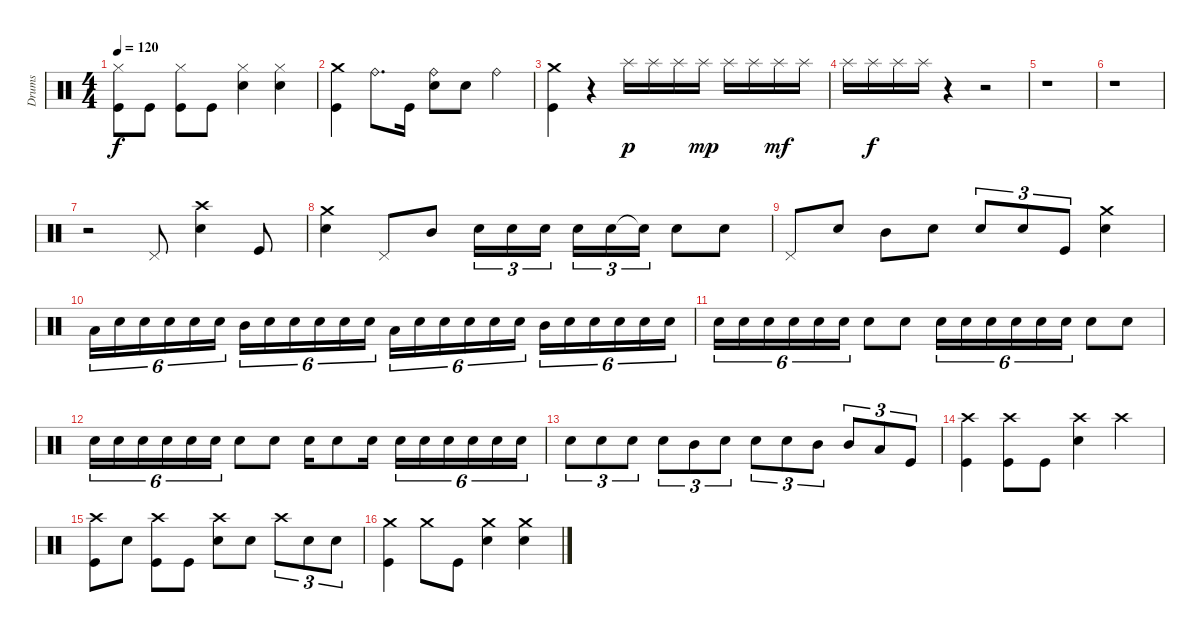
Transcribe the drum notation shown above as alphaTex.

\track ("Drums" "Drums") {instrument percussion}
\staff {score}
\articulation defaults
\ts (4 4)
\tempo 120
\clef neutral
\ks c
("Kick (hit)" "Hi-Hat (closed)").8{dy f} "Kick (hit)".8 ("Kick (hit)" "Hi-Hat (closed)").8 "Kick (hit)".8 ("Snare (hit) 2" "Hi-Hat (closed)").4 ("Snare (hit) 2" "Hi-Hat (closed)").4 |
("Kick (hit)" "Crash medium (hit)").4 "Ride (bell)".8{d} "Kick (hit)".16 ("Snare (hit) 2" "Ride (bell)").8 "Snare (hit) 2".8 "Ride (bell)".4 |
("Kick (hit)" "Crash medium (hit)").4 r.4 "Splash (hit)".16{dy p} "Splash (hit)".16 "Splash (hit)".16 "Splash (hit)".16{dy mp} "Splash (hit)".16 "Splash (hit)".16 "Splash (hit)".16{dy mf} "Splash (hit)".16 |
"Splash (hit)".16 "Splash (hit)".16{dy f} "Splash (hit)".16 "Splash (hit)".16 r.4 r.2 |
r.1 |
r.1 |
r.2 "Pedal Hi-Hat (hit)".8 ("Snare (hit) 2" "Crash high (hit)").4 "Kick (hit)".8 |
("Snare (hit) 2" "Crash medium (hit)").4 "Pedal Hi-Hat (hit)".8 "Mid Tom (hit)".8 "Snare (hit) 2".16{tu (3 2)} "Snare (hit) 2".16{tu (3 2)} "Snare (hit) 2".16{tu (3 2)} "Snare (hit) 2".16{tu (3 2)} "Snare (hit) 2".16{tu (3 2)} "Snare (hit)"{t}.16{tu (3 2)} "Snare (hit) 2".8 "Snare (hit) 2".8 |
"Pedal Hi-Hat (hit)".8 "Snare (hit) 2".8 "Mid Tom (hit)".8 "Snare (hit) 2".8 "Snare (hit) 2".8{tu (3 2)} "Snare (hit) 2".8{tu (3 2)} "Kick (hit)".8{tu (3 2)} ("Snare (hit) 2" "Crash medium (hit)").4 |
"Low Tom (hit)".16{tu (6 4)} "Snare (hit) 2".16{tu (6 4)} "Snare (hit) 2".16{tu (6 4)} "Snare (hit) 2".16{tu (6 4)} "Snare (hit) 2".16{tu (6 4)} "Snare (hit) 2".16{tu (6 4)} "Mid Tom (hit)".16{tu (6 4)} "Snare (hit) 2".16{tu (6 4)} "Snare (hit) 2".16{tu (6 4)} "Snare (hit) 2".16{tu (6 4)} "Snare (hit) 2".16{tu (6 4)} "Snare (hit) 2".16{tu (6 4)} "Low Tom (hit)".16{tu (6 4)} "Snare (hit) 2".16{tu (6 4)} "Snare (hit) 2".16{tu (6 4)} "Snare (hit) 2".16{tu (6 4)} "Snare (hit) 2".16{tu (6 4)} "Snare (hit) 2".16{tu (6 4)} "Mid Tom (hit)".16{tu (6 4)} "Snare (hit) 2".16{tu (6 4)} "Snare (hit) 2".16{tu (6 4)} "Snare (hit) 2".16{tu (6 4)} "Snare (hit) 2".16{tu (6 4)} "Snare (hit) 2".16{tu (6 4)} |
"Snare (hit) 2".16{tu (6 4)} "Snare (hit) 2".16{tu (6 4)} "Snare (hit) 2".16{tu (6 4)} "Snare (hit) 2".16{tu (6 4)} "Snare (hit) 2".16{tu (6 4)} "Snare (hit) 2".16{tu (6 4)} "Snare (hit) 2".8 "Snare (hit) 2".8 "Snare (hit) 2".16{tu (6 4)} "Snare (hit) 2".16{tu (6 4)} "Snare (hit) 2".16{tu (6 4)} "Snare (hit) 2".16{tu (6 4)} "Snare (hit) 2".16{tu (6 4)} "Snare (hit) 2".16{tu (6 4)} "Snare (hit) 2".8 "Snare (hit) 2".8 |
"Snare (hit) 2".16{tu (6 4)} "Snare (hit) 2".16{tu (6 4)} "Snare (hit) 2".16{tu (6 4)} "Snare (hit) 2".16{tu (6 4)} "Snare (hit) 2".16{tu (6 4)} "Snare (hit) 2".16{tu (6 4)} "Snare (hit) 2".8 "Snare (hit) 2".8 "Snare (hit) 2".16 "Snare (hit) 2".8 "Snare (hit) 2".16 "Snare (hit) 2".16{tu (6 4)} "Snare (hit) 2".16{tu (6 4)} "Snare (hit) 2".16{tu (6 4)} "Snare (hit) 2".16{tu (6 4)} "Snare (hit) 2".16{tu (6 4)} "Snare (hit) 2".16{tu (6 4)} |
"Snare (hit) 2".8{tu (3 2)} "Snare (hit) 2".8{tu (3 2)} "Snare (hit) 2".8{tu (3 2)} "Snare (hit) 2".8{tu (3 2)} "Mid Tom (hit)".8{tu (3 2)} "Snare (hit) 2".8{tu (3 2)} "Snare (hit) 2".8{tu (3 2)} "Snare (hit) 2".8{tu (3 2)} "Mid Tom (hit)".8{tu (3 2)} "Mid Tom (hit)".8{tu (3 2)} "Low Tom (hit)".8{tu (3 2)} "Kick (hit)".8{tu (3 2)} |
("Kick (hit)" "Crash high (hit)").4 ("Kick (hit)" "Crash high (hit)").8 "Kick (hit)".8 ("Snare (hit) 2" "Crash high (hit)").4 "Crash high (hit)".4 |
("Kick (hit)" "Crash high (hit)").8 "Snare (hit) 2".8 ("Kick (hit)" "Crash high (hit)").8 "Kick (hit)".8 ("Snare (hit) 2" "Crash high (hit)").8 "Snare (hit) 2".8 "Crash high (hit)".8{tu (3 2)} "Snare (hit) 2".8{tu (3 2)} "Snare (hit) 2".8{tu (3 2)} |
("Kick (hit)" "Crash medium (hit)").4 "Crash medium (hit)".8 "Kick (hit)".8 ("Snare (hit) 2" "Crash medium (hit)").4 ("Snare (hit) 2" "Crash medium (hit)").4
